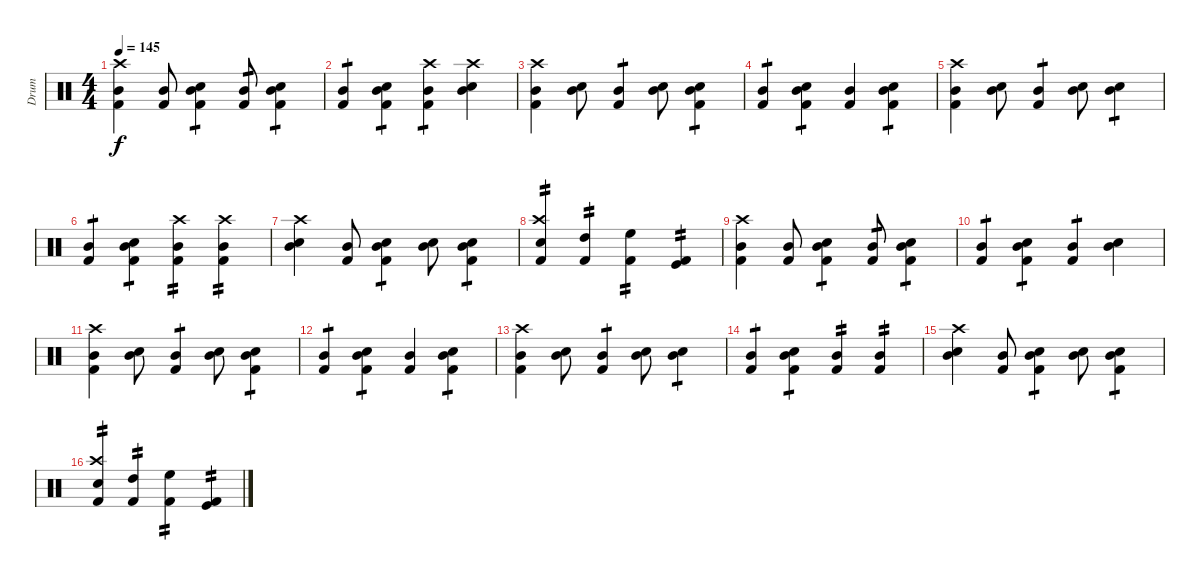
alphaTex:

\track ("Drum" "Drum") {instrument percussion}
\staff {score}
\articulation defaults
\ts (4 4)
\tempo 145
\clef neutral
\ks c
("Mid Tom (hit)" "Kick (hit) 2" "Crash high (hit)").4{dy f} ("Mid Tom (hit)" "Kick (hit) 2").8 ("Mid Tom (hit)" "Kick (hit) 2" "Snare (hit) 2").4{tp 1} ("Mid Tom (hit)" "Kick (hit) 2").8{tp 1} ("Mid Tom (hit)" "Snare (hit) 2" "Kick (hit) 2").4{tp 1} |
("Mid Tom (hit)" "Kick (hit) 2").4{tp 1} ("Mid Tom (hit)" "Kick (hit) 2" "Snare (hit) 2").4{tp 1} ("Mid Tom (hit)" "Kick (hit) 2" "Crash high (hit)").4{tp 1} ("Mid Tom (hit)" "Snare (hit) 2" "Crash high (hit)").4 |
("Mid Tom (hit)" "Kick (hit) 2" "Crash high (hit)").4 ("Mid Tom (hit)" "Snare (hit) 2").8 ("Mid Tom (hit)" "Kick (hit) 2").4{tp 1} ("Mid Tom (hit)" "Snare (hit) 2").8 ("Mid Tom (hit)" "Snare (hit) 2" "Kick (hit) 2").4{tp 1} |
("Mid Tom (hit)" "Kick (hit) 2").4{tp 1} ("Mid Tom (hit)" "Kick (hit) 2" "Snare (hit) 2").4{tp 1} ("Mid Tom (hit)" "Kick (hit) 2").4 ("Mid Tom (hit)" "Kick (hit) 2" "Snare (hit) 2").4{tp 1} |
("Mid Tom (hit)" "Kick (hit) 2" "Crash high (hit)").4 ("Mid Tom (hit)" "Snare (hit) 2").8 ("Mid Tom (hit)" "Kick (hit) 2").4{tp 1} ("Mid Tom (hit)" "Snare (hit) 2").8 ("Mid Tom (hit)" "Snare (hit) 2").4{tp 1} |
("Mid Tom (hit)" "Kick (hit) 2").4{tp 1} ("Mid Tom (hit)" "Kick (hit) 2" "Snare (hit) 2").4{tp 1} ("Mid Tom (hit)" "Kick (hit) 2" "Crash high (hit)").4{tp 2} ("Mid Tom (hit)" "Kick (hit) 2" "Crash high (hit)").4{tp 2} |
("Mid Tom (hit)" "Snare (hit) 2" "Crash high (hit)").4 ("Mid Tom (hit)" "Kick (hit) 2").8 ("Mid Tom (hit)" "Kick (hit) 2" "Snare (hit) 2").4{tp 1} ("Mid Tom (hit)" "Snare (hit) 2").8 ("Mid Tom (hit)" "Snare (hit) 2" "Kick (hit) 2").4{tp 1} |
("Crash high (hit)" "Kick (hit) 2" "Snare (hit) 2").4{tp 2} ("High Tom (hit)" "Kick (hit) 2").4{tp 2} ("High Floor Tom (hit)" "Kick (hit) 2").4{tp 2} ("Kick (hit)" "Kick (hit) 2").4{tp 2} |
("Mid Tom (hit)" "Kick (hit) 2" "Crash high (hit)").4 ("Mid Tom (hit)" "Kick (hit) 2").8 ("Mid Tom (hit)" "Kick (hit) 2" "Snare (hit) 2").4{tp 1} ("Mid Tom (hit)" "Kick (hit) 2").8{tp 1} ("Mid Tom (hit)" "Snare (hit) 2" "Kick (hit) 2").4{tp 1} |
("Mid Tom (hit)" "Kick (hit) 2").4{tp 1} ("Mid Tom (hit)" "Kick (hit) 2" "Snare (hit) 2").4{tp 1} ("Mid Tom (hit)" "Kick (hit) 2").4{tp 1} ("Mid Tom (hit)" "Snare (hit) 2").4 |
("Mid Tom (hit)" "Kick (hit) 2" "Crash high (hit)").4 ("Mid Tom (hit)" "Snare (hit) 2").8 ("Mid Tom (hit)" "Kick (hit) 2").4{tp 1} ("Mid Tom (hit)" "Snare (hit) 2").8 ("Mid Tom (hit)" "Snare (hit) 2" "Kick (hit) 2").4{tp 1} |
("Mid Tom (hit)" "Kick (hit) 2").4{tp 1} ("Mid Tom (hit)" "Kick (hit) 2" "Snare (hit) 2").4{tp 1} ("Mid Tom (hit)" "Kick (hit) 2").4 ("Mid Tom (hit)" "Kick (hit) 2" "Snare (hit) 2").4{tp 1} |
("Mid Tom (hit)" "Kick (hit) 2" "Crash high (hit)").4 ("Mid Tom (hit)" "Snare (hit) 2").8 ("Mid Tom (hit)" "Kick (hit) 2").4{tp 1} ("Mid Tom (hit)" "Snare (hit) 2").8 ("Mid Tom (hit)" "Snare (hit) 2").4{tp 1} |
("Mid Tom (hit)" "Kick (hit) 2").4{tp 1} ("Mid Tom (hit)" "Kick (hit) 2" "Snare (hit) 2").4{tp 1} ("Mid Tom (hit)" "Kick (hit) 2").4{tp 2} ("Mid Tom (hit)" "Kick (hit) 2").4{tp 2} |
("Mid Tom (hit)" "Snare (hit) 2" "Crash high (hit)").4 ("Mid Tom (hit)" "Kick (hit) 2").8 ("Mid Tom (hit)" "Kick (hit) 2" "Snare (hit) 2").4{tp 1} ("Mid Tom (hit)" "Snare (hit) 2").8 ("Mid Tom (hit)" "Snare (hit) 2" "Kick (hit) 2").4{tp 1} |
("Crash high (hit)" "Kick (hit) 2" "Snare (hit) 2").4{tp 2} ("High Tom (hit)" "Kick (hit) 2").4{tp 2} ("High Floor Tom (hit)" "Kick (hit) 2").4{tp 2} ("Kick (hit)" "Kick (hit) 2").4{tp 2}
